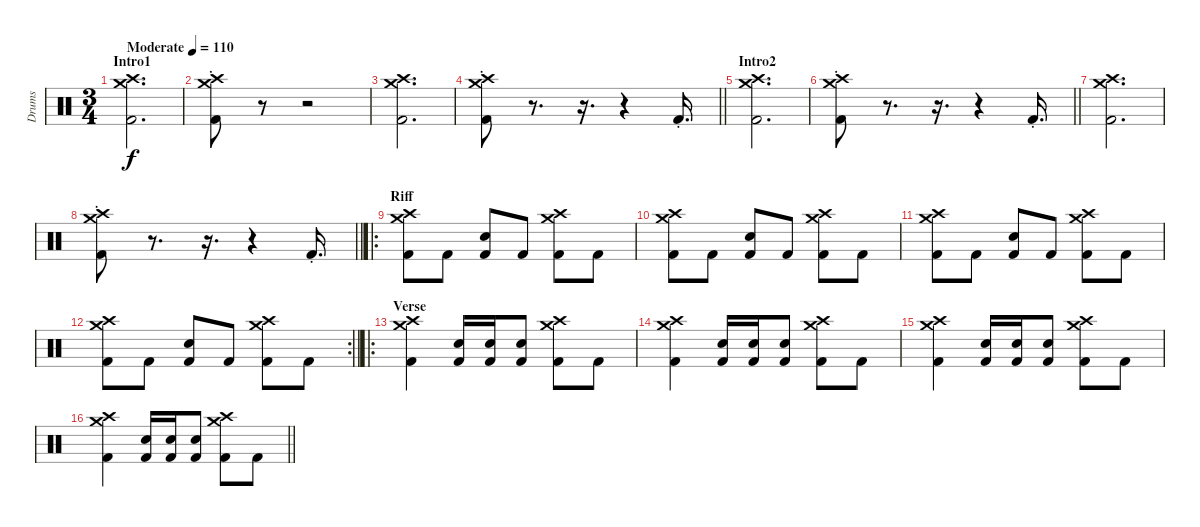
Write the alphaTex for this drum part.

\track ("Drums" "Drums") {instrument percussion}
\staff {score}
\articulation defaults
\ts (3 4)
\section ("" "Intro1")
\tempo (110 "Moderate")
\clef neutral
\ks c
("Crash high (hit)" "Crash medium (hit)" "Kick (hit) 2").2{d dy f} |
("Crash high (hit)"{st} "Crash medium (hit)"{st} "Kick (hit) 2"{st}).8 r.8 r.2 |
("Crash high (hit)" "Crash medium (hit)" "Kick (hit) 2").2{d} |
\barLineRight lightlight
("Crash high (hit)"{st} "Crash medium (hit)"{st} "Kick (hit) 2"{st}).8 r.8{d} r.16{d} r.4 "Kick (hit) 2"{st}.16{d} |
\section ("" "Intro2")
("Crash high (hit)" "Crash medium (hit)" "Kick (hit) 2").2{d} |
\barLineRight lightlight
("Crash high (hit)"{st} "Crash medium (hit)"{st} "Kick (hit) 2"{st}).8 r.8{d} r.16{d} r.4 "Kick (hit) 2"{st}.16{d} |
("Crash high (hit)" "Crash medium (hit)" "Kick (hit) 2").2{d} |
\barLineRight lightlight
("Crash high (hit)"{st} "Crash medium (hit)"{st} "Kick (hit) 2"{st}).8 r.8{d} r.16{d} r.4 "Kick (hit) 2"{st}.16{d} |
\ro
\section ("" "Riff")
("Crash high (hit)" "Crash medium (hit)" "Kick (hit) 2").8 "Kick (hit) 2".8 ("Electric Snare (hit)" "Kick (hit) 2").8 "Kick (hit) 2".8 ("Crash high (hit)" "Crash medium (hit)" "Kick (hit) 2").8 "Kick (hit) 2".8 |
("Crash high (hit)" "Crash medium (hit)" "Kick (hit) 2").8 "Kick (hit) 2".8 ("Electric Snare (hit)" "Kick (hit) 2").8 "Kick (hit) 2".8 ("Crash high (hit)" "Crash medium (hit)" "Kick (hit) 2").8 "Kick (hit) 2".8 |
("Crash high (hit)" "Crash medium (hit)" "Kick (hit) 2").8 "Kick (hit) 2".8 ("Electric Snare (hit)" "Kick (hit) 2").8 "Kick (hit) 2".8 ("Crash high (hit)" "Crash medium (hit)" "Kick (hit) 2").8 "Kick (hit) 2".8 |
\rc 2
\barLineRight lightlight
("Crash high (hit)" "Crash medium (hit)" "Kick (hit) 2").8 "Kick (hit) 2".8 ("Electric Snare (hit)" "Kick (hit) 2").8 "Kick (hit) 2".8 ("Crash high (hit)" "Crash medium (hit)" "Kick (hit) 2").8 "Kick (hit) 2".8 |
\ro
\section ("" "Verse")
("Crash high (hit)" "Crash medium (hit)" "Kick (hit) 2").4 ("Electric Snare (hit)" "Kick (hit) 2").16 ("Electric Snare (hit)" "Kick (hit) 2").16 ("Electric Snare (hit)" "Kick (hit) 2").8 ("Crash high (hit)" "Crash medium (hit)" "Kick (hit) 2").8 "Kick (hit) 2".8 |
("Crash high (hit)" "Crash medium (hit)" "Kick (hit) 2").4 ("Electric Snare (hit)" "Kick (hit) 2").16 ("Electric Snare (hit)" "Kick (hit) 2").16 ("Electric Snare (hit)" "Kick (hit) 2").8 ("Crash high (hit)" "Crash medium (hit)" "Kick (hit) 2").8 "Kick (hit) 2".8 |
("Crash high (hit)" "Crash medium (hit)" "Kick (hit) 2").4 ("Electric Snare (hit)" "Kick (hit) 2").16 ("Electric Snare (hit)" "Kick (hit) 2").16 ("Electric Snare (hit)" "Kick (hit) 2").8 ("Crash high (hit)" "Crash medium (hit)" "Kick (hit) 2").8 "Kick (hit) 2".8 |
\barLineRight lightlight
("Crash high (hit)" "Crash medium (hit)" "Kick (hit) 2").4 ("Electric Snare (hit)" "Kick (hit) 2").16 ("Electric Snare (hit)" "Kick (hit) 2").16 ("Electric Snare (hit)" "Kick (hit) 2").8 ("Crash high (hit)" "Crash medium (hit)" "Kick (hit) 2").8 "Kick (hit) 2".8
